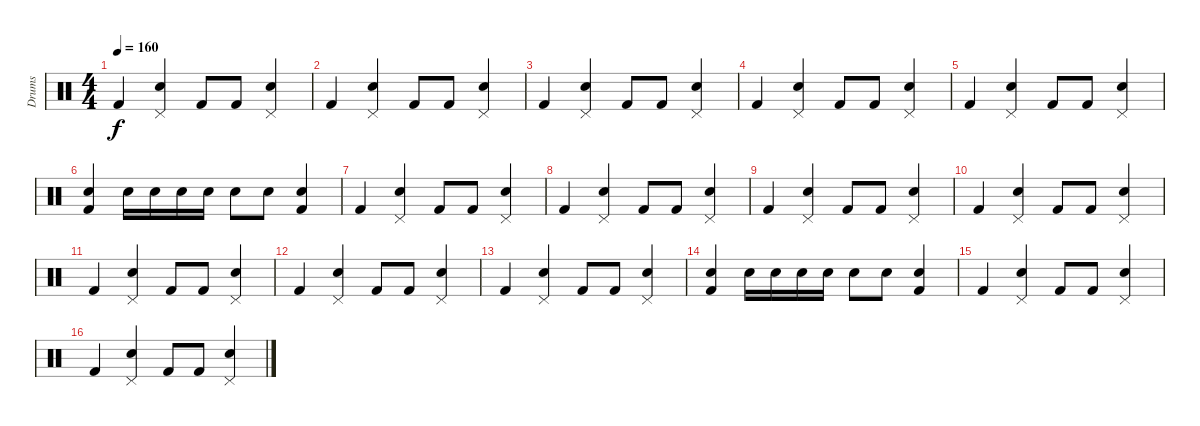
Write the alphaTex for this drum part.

\track ("Drums" "Drums") {instrument percussion}
\staff {score}
\articulation defaults
\ts (4 4)
\tempo 160
\clef neutral
\ks c "Kick (hit) 2".4{dy f}
("Pedal Hi-Hat (hit)" "Electric Snare (hit)").4 "Kick (hit) 2".8 "Kick (hit) 2".8 ("Pedal Hi-Hat (hit)" "Electric Snare (hit)").4 |
"Kick (hit) 2".4 ("Pedal Hi-Hat (hit)" "Electric Snare (hit)").4 "Kick (hit) 2".8 "Kick (hit) 2".8 ("Pedal Hi-Hat (hit)" "Electric Snare (hit)").4 |
"Kick (hit) 2".4 ("Pedal Hi-Hat (hit)" "Electric Snare (hit)").4 "Kick (hit) 2".8 "Kick (hit) 2".8 ("Pedal Hi-Hat (hit)" "Electric Snare (hit)").4 |
"Kick (hit) 2".4 ("Pedal Hi-Hat (hit)" "Electric Snare (hit)").4 "Kick (hit) 2".8 "Kick (hit) 2".8 ("Pedal Hi-Hat (hit)" "Electric Snare (hit)").4 |
"Kick (hit) 2".4 ("Pedal Hi-Hat (hit)" "Electric Snare (hit)").4 "Kick (hit) 2".8 "Kick (hit) 2".8 ("Pedal Hi-Hat (hit)" "Electric Snare (hit)").4 |
("Kick (hit) 2" "Electric Snare (hit)").4 "Electric Snare (hit)".16 "Electric Snare (hit)".16 "Electric Snare (hit)".16 "Electric Snare (hit)".16 "Electric Snare (hit)".8 "Electric Snare (hit)".8 ("Kick (hit) 2" "Electric Snare (hit)").4 |
"Kick (hit) 2".4 ("Pedal Hi-Hat (hit)" "Electric Snare (hit)").4 "Kick (hit) 2".8 "Kick (hit) 2".8 ("Pedal Hi-Hat (hit)" "Electric Snare (hit)").4 |
"Kick (hit) 2".4 ("Pedal Hi-Hat (hit)" "Electric Snare (hit)").4 "Kick (hit) 2".8 "Kick (hit) 2".8 ("Pedal Hi-Hat (hit)" "Electric Snare (hit)").4 |
"Kick (hit) 2".4 ("Pedal Hi-Hat (hit)" "Electric Snare (hit)").4 "Kick (hit) 2".8 "Kick (hit) 2".8 ("Pedal Hi-Hat (hit)" "Electric Snare (hit)").4 |
"Kick (hit) 2".4 ("Pedal Hi-Hat (hit)" "Electric Snare (hit)").4 "Kick (hit) 2".8 "Kick (hit) 2".8 ("Pedal Hi-Hat (hit)" "Electric Snare (hit)").4 |
"Kick (hit) 2".4 ("Pedal Hi-Hat (hit)" "Electric Snare (hit)").4 "Kick (hit) 2".8 "Kick (hit) 2".8 ("Pedal Hi-Hat (hit)" "Electric Snare (hit)").4 |
"Kick (hit) 2".4 ("Pedal Hi-Hat (hit)" "Electric Snare (hit)").4 "Kick (hit) 2".8 "Kick (hit) 2".8 ("Pedal Hi-Hat (hit)" "Electric Snare (hit)").4 |
"Kick (hit) 2".4 ("Pedal Hi-Hat (hit)" "Electric Snare (hit)").4 "Kick (hit) 2".8 "Kick (hit) 2".8 ("Pedal Hi-Hat (hit)" "Electric Snare (hit)").4 |
("Kick (hit) 2" "Electric Snare (hit)").4 "Electric Snare (hit)".16 "Electric Snare (hit)".16 "Electric Snare (hit)".16 "Electric Snare (hit)".16 "Electric Snare (hit)".8 "Electric Snare (hit)".8 ("Kick (hit) 2" "Electric Snare (hit)").4 |
"Kick (hit) 2".4 ("Pedal Hi-Hat (hit)" "Electric Snare (hit)").4 "Kick (hit) 2".8 "Kick (hit) 2".8 ("Pedal Hi-Hat (hit)" "Electric Snare (hit)").4 |
"Kick (hit) 2".4 ("Pedal Hi-Hat (hit)" "Electric Snare (hit)").4 "Kick (hit) 2".8 "Kick (hit) 2".8 ("Pedal Hi-Hat (hit)" "Electric Snare (hit)").4
